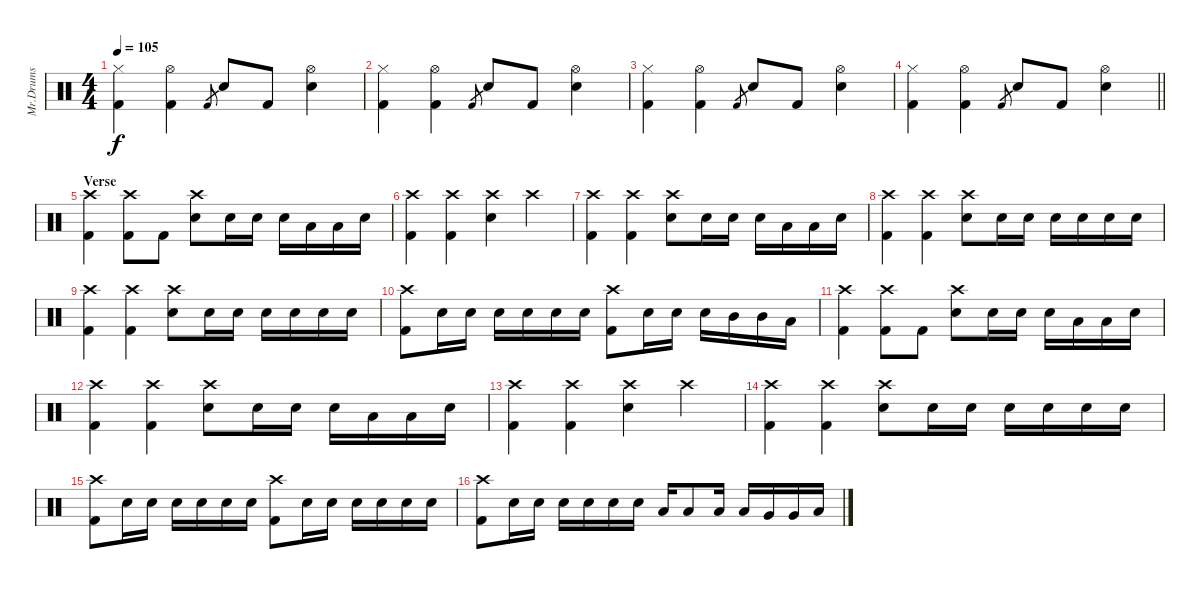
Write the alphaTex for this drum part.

\track ("Mr.Drums" "Mr.Drums") {instrument percussion}
\staff {score}
\articulation defaults
\ts (4 4)
\tempo 105
\clef neutral
\ks c
("Hi-Hat (closed)" "Kick (hit) 2").4{dy f} ("Hi-Hat (open)" "Kick (hit) 2").4 "Kick (hit) 2".8{gr} "Electric Snare (hit)".8 "Kick (hit) 2".8 ("Hi-Hat (open)" "Electric Snare (hit)").4 |
("Hi-Hat (closed)" "Kick (hit) 2").4 ("Hi-Hat (open)" "Kick (hit) 2").4 "Kick (hit) 2".8{gr} "Electric Snare (hit)".8 "Kick (hit) 2".8 ("Hi-Hat (open)" "Electric Snare (hit)").4 |
("Hi-Hat (closed)" "Kick (hit) 2").4 ("Hi-Hat (open)" "Kick (hit) 2").4 "Kick (hit) 2".8{gr} "Electric Snare (hit)".8 "Kick (hit) 2".8 ("Hi-Hat (open)" "Electric Snare (hit)").4 |
\barLineRight lightlight
("Hi-Hat (closed)" "Kick (hit) 2").4 ("Hi-Hat (open)" "Kick (hit) 2").4 "Kick (hit) 2".8{gr} "Electric Snare (hit)".8 "Kick (hit) 2".8 ("Hi-Hat (open)" "Electric Snare (hit)").4 |
\section ("" "Verse")
("Crash high (hit)" "Kick (hit) 2").4 ("Crash high (hit)" "Kick (hit) 2").8 "Kick (hit) 2".8 ("Crash high (hit)" "Electric Snare (hit)").8 "Electric Snare (hit)".16 "Electric Snare (hit)".16 "Electric Snare (hit)".16 "Low Tom (hit)".16 "Low Tom (hit)".16 "Electric Snare (hit)".16 |
("Crash high (hit)" "Kick (hit) 2").4 ("Crash high (hit)" "Kick (hit) 2").4 ("Crash high (hit)" "Electric Snare (hit)").4 "Crash high (hit)".4 |
("Crash high (hit)" "Kick (hit) 2").4 ("Crash high (hit)" "Kick (hit) 2").4 ("Crash high (hit)" "Electric Snare (hit)").8 "Electric Snare (hit)".16 "Electric Snare (hit)".16 "Electric Snare (hit)".16 "Low Tom (hit)".16 "Low Tom (hit)".16 "Electric Snare (hit)".16 |
("Crash high (hit)" "Kick (hit) 2").4 ("Crash high (hit)" "Kick (hit) 2").4 ("Crash high (hit)" "Electric Snare (hit)").8 "Electric Snare (hit)".16 "Electric Snare (hit)".16 "Electric Snare (hit)".16 "Electric Snare (hit)".16 "Electric Snare (hit)".16 "Electric Snare (hit)".16 |
("Crash high (hit)" "Kick (hit) 2").4 ("Crash high (hit)" "Kick (hit) 2").4 ("Crash high (hit)" "Electric Snare (hit)").8 "Electric Snare (hit)".16 "Electric Snare (hit)".16 "Electric Snare (hit)".16 "Electric Snare (hit)".16 "Electric Snare (hit)".16 "Electric Snare (hit)".16 |
("Crash high (hit)" "Kick (hit) 2").8 "Electric Snare (hit)".16 "Electric Snare (hit)".16 "Electric Snare (hit)".16 "Electric Snare (hit)".16 "Electric Snare (hit)".16 "Electric Snare (hit)".16 ("Crash high (hit)" "Kick (hit) 2").8 "Electric Snare (hit)".16 "Electric Snare (hit)".16 "Electric Snare (hit)".16 "Mid Tom (hit)".16 "Mid Tom (hit)".16 "Low Tom (hit)".16 |
("Crash high (hit)" "Kick (hit) 2").4 ("Crash high (hit)" "Kick (hit) 2").8 "Kick (hit) 2".8 ("Crash high (hit)" "Electric Snare (hit)").8 "Electric Snare (hit)".16 "Electric Snare (hit)".16 "Electric Snare (hit)".16 "Low Tom (hit)".16 "Low Tom (hit)".16 "Electric Snare (hit)".16 |
("Crash high (hit)" "Kick (hit) 2").4 ("Crash high (hit)" "Kick (hit) 2").4 ("Crash high (hit)" "Electric Snare (hit)").8 "Electric Snare (hit)".16 "Electric Snare (hit)".16 "Electric Snare (hit)".16 "Low Tom (hit)".16 "Low Tom (hit)".16 "Electric Snare (hit)".16 |
("Crash high (hit)" "Kick (hit) 2").4 ("Crash high (hit)" "Kick (hit) 2").4 ("Crash high (hit)" "Electric Snare (hit)").4 "Crash high (hit)".4 |
("Crash high (hit)" "Kick (hit) 2").4 ("Crash high (hit)" "Kick (hit) 2").4 ("Crash high (hit)" "Electric Snare (hit)").8 "Electric Snare (hit)".16 "Electric Snare (hit)".16 "Electric Snare (hit)".16 "Electric Snare (hit)".16 "Electric Snare (hit)".16 "Electric Snare (hit)".16 |
("Crash high (hit)" "Kick (hit) 2").8 "Electric Snare (hit)".16 "Electric Snare (hit)".16 "Electric Snare (hit)".16 "Electric Snare (hit)".16 "Electric Snare (hit)".16 "Electric Snare (hit)".16 ("Crash high (hit)" "Kick (hit) 2").8 "Electric Snare (hit)".16 "Electric Snare (hit)".16 "Electric Snare (hit)".16 "Electric Snare (hit)".16 "Electric Snare (hit)".16 "Electric Snare (hit)".16 |
("Crash high (hit)" "Kick (hit) 2").8 "Electric Snare (hit)".16 "Electric Snare (hit)".16 "Electric Snare (hit)".16 "Electric Snare (hit)".16 "Electric Snare (hit)".16 "Electric Snare (hit)".16 "Low Tom (hit)".16 "Low Tom (hit)".8 "Low Tom (hit)".16 "Low Tom (hit)".16 "Very Low Tom (hit)".16 "Very Low Tom (hit)".16 "Low Floor Tom (hit)".16
